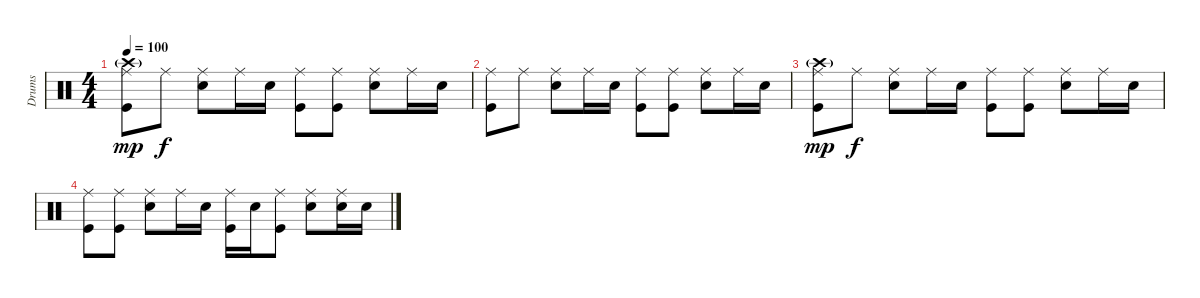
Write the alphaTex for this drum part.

\track ("Drums" "Drums") {instrument percussion}
\staff {score}
\articulation defaults
\ts (4 4)
\tempo 100
\clef neutral
\ks c
("Ride (middle)" "Crash high (hit)"{g} "Kick (hit)").8{dy mp} "Ride (middle)".8{dy f} ("Ride (middle)" "Snare (hit) 2").8 "Ride (middle)".16 "Snare (hit) 2".16 ("Ride (middle)" "Kick (hit)").8 ("Ride (middle)" "Kick (hit)").8 ("Ride (middle)" "Snare (hit) 2").8 "Ride (middle)".16 "Snare (hit) 2".16 |
("Ride (middle)" "Kick (hit)").8 "Ride (middle)".8 ("Ride (middle)" "Snare (hit) 2").8 "Ride (middle)".16 "Snare (hit) 2".16 ("Ride (middle)" "Kick (hit)").8 ("Ride (middle)" "Kick (hit)").8 ("Ride (middle)" "Snare (hit) 2").8 "Ride (middle)".16 "Snare (hit) 2".16 |
("Ride (middle)" "Crash high (hit)"{g} "Kick (hit)").8{dy mp} "Ride (middle)".8{dy f} ("Ride (middle)" "Snare (hit) 2").8 "Ride (middle)".16 "Snare (hit) 2".16 ("Ride (middle)" "Kick (hit)").8 ("Ride (middle)" "Kick (hit)").8 ("Ride (middle)" "Snare (hit) 2").8 "Ride (middle)".16 "Snare (hit) 2".16 |
("Ride (middle)" "Kick (hit)").8 ("Ride (middle)" "Kick (hit)").8 ("Ride (middle)" "Snare (hit) 2").8 "Ride (middle)".16 "Snare (hit) 2".16 ("Ride (middle)" "Kick (hit)").16 "Snare (hit) 2".16 ("Ride (middle)" "Kick (hit)").8 ("Ride (middle)" "Snare (hit) 2").8 ("Ride (middle)" "Snare (hit) 2").16 "Snare (hit) 2".16
